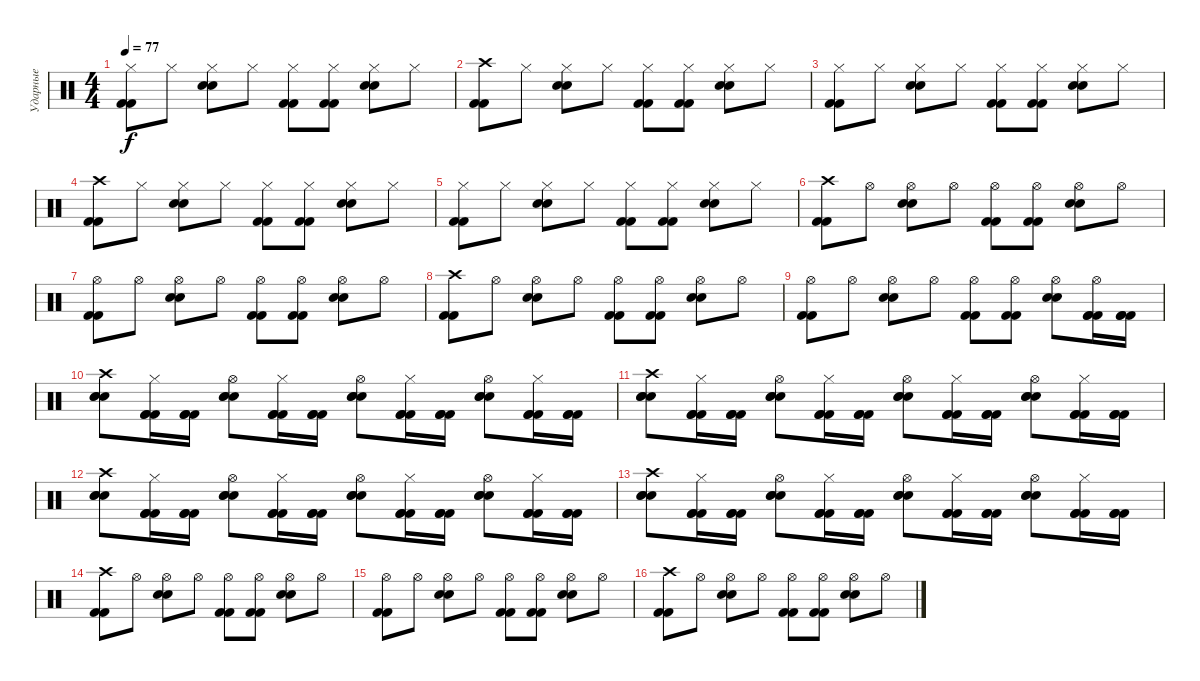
\track ("Ударные" "Ударные") {instrument percussion}
\staff {score}
\articulation defaults
\ts (4 4)
\tempo 77
\clef neutral
\ks c
("Hi-Hat (closed)" "Kick (hit) 2" "Kick (hit) 2").8{dy f} "Hi-Hat (closed)".8 ("Hi-Hat (closed)" "Snare (hit) 2" "Snare (hit) 2").8 "Hi-Hat (closed)".8 ("Hi-Hat (closed)" "Kick (hit) 2" "Kick (hit) 2").8 ("Hi-Hat (closed)" "Kick (hit) 2" "Kick (hit) 2").8 ("Hi-Hat (closed)" "Snare (hit) 2" "Snare (hit) 2").8 "Hi-Hat (closed)".8 |
("Crash high (hit)" "Kick (hit) 2" "Kick (hit) 2").8 "Hi-Hat (closed)".8 ("Hi-Hat (closed)" "Snare (hit) 2" "Snare (hit) 2").8 "Hi-Hat (closed)".8 ("Hi-Hat (closed)" "Kick (hit) 2" "Kick (hit) 2").8 ("Hi-Hat (closed)" "Kick (hit) 2" "Kick (hit) 2").8 ("Hi-Hat (closed)" "Snare (hit) 2" "Snare (hit) 2").8 "Hi-Hat (closed)".8 |
("Hi-Hat (closed)" "Kick (hit) 2" "Kick (hit) 2").8 "Hi-Hat (closed)".8 ("Hi-Hat (closed)" "Snare (hit) 2" "Snare (hit) 2").8 "Hi-Hat (closed)".8 ("Hi-Hat (closed)" "Kick (hit) 2" "Kick (hit) 2").8 ("Hi-Hat (closed)" "Kick (hit) 2" "Kick (hit) 2").8 ("Hi-Hat (closed)" "Snare (hit) 2" "Snare (hit) 2").8 "Hi-Hat (closed)".8 |
("Crash high (hit)" "Kick (hit) 2" "Kick (hit) 2").8 "Hi-Hat (closed)".8 ("Hi-Hat (closed)" "Snare (hit) 2" "Snare (hit) 2").8 "Hi-Hat (closed)".8 ("Hi-Hat (closed)" "Kick (hit) 2" "Kick (hit) 2").8 ("Hi-Hat (closed)" "Kick (hit) 2" "Kick (hit) 2").8 ("Hi-Hat (closed)" "Snare (hit) 2" "Snare (hit) 2").8 "Hi-Hat (closed)".8 |
("Hi-Hat (closed)" "Kick (hit) 2" "Kick (hit) 2").8 "Hi-Hat (closed)".8 ("Hi-Hat (closed)" "Snare (hit) 2" "Snare (hit) 2").8 "Hi-Hat (closed)".8 ("Hi-Hat (closed)" "Kick (hit) 2" "Kick (hit) 2").8 ("Hi-Hat (closed)" "Kick (hit) 2" "Kick (hit) 2").8 ("Hi-Hat (closed)" "Snare (hit) 2" "Snare (hit) 2").8 "Hi-Hat (closed)".8 |
("Crash high (hit)" "Kick (hit) 2" "Kick (hit) 2").8 "Hi-Hat (open)".8 ("Hi-Hat (open)" "Snare (hit) 2" "Snare (hit) 2").8 "Hi-Hat (open)".8 ("Hi-Hat (open)" "Kick (hit) 2" "Kick (hit) 2").8 ("Hi-Hat (open)" "Kick (hit) 2" "Kick (hit) 2").8 ("Hi-Hat (open)" "Snare (hit) 2" "Snare (hit) 2").8 "Hi-Hat (open)".8 |
("Hi-Hat (open)" "Kick (hit) 2" "Kick (hit) 2").8 "Hi-Hat (open)".8 ("Hi-Hat (open)" "Snare (hit) 2" "Snare (hit) 2").8 "Hi-Hat (open)".8 ("Hi-Hat (open)" "Kick (hit) 2" "Kick (hit) 2").8 ("Hi-Hat (open)" "Kick (hit) 2" "Kick (hit) 2").8 ("Hi-Hat (open)" "Snare (hit) 2" "Snare (hit) 2").8 "Hi-Hat (open)".8 |
("Crash high (hit)" "Kick (hit) 2" "Kick (hit) 2").8 "Hi-Hat (open)".8 ("Hi-Hat (open)" "Snare (hit) 2" "Snare (hit) 2").8 "Hi-Hat (open)".8 ("Hi-Hat (open)" "Kick (hit) 2" "Kick (hit) 2").8 ("Hi-Hat (open)" "Kick (hit) 2" "Kick (hit) 2").8 ("Hi-Hat (open)" "Snare (hit) 2" "Snare (hit) 2").8 "Hi-Hat (open)".8 |
("Hi-Hat (open)" "Kick (hit) 2" "Kick (hit) 2").8 "Hi-Hat (open)".8 ("Hi-Hat (open)" "Snare (hit) 2" "Snare (hit) 2").8 "Hi-Hat (open)".8 ("Hi-Hat (open)" "Kick (hit) 2" "Kick (hit) 2").8 ("Hi-Hat (open)" "Kick (hit) 2" "Kick (hit) 2").8 ("Hi-Hat (open)" "Snare (hit) 2" "Snare (hit) 2").8 ("Hi-Hat (open)" "Kick (hit) 2" "Kick (hit) 2" "Kick (hit) 2").16 ("Kick (hit) 2" "Kick (hit) 2" "Kick (hit) 2").16 |
("Crash high (hit)" "Snare (hit) 2" "Snare (hit) 2" "Snare (hit) 2").8 ("Hi-Hat (closed)" "Kick (hit) 2" "Kick (hit) 2" "Kick (hit) 2").16 ("Kick (hit) 2" "Kick (hit) 2" "Kick (hit) 2").16 ("Hi-Hat (open)" "Snare (hit) 2" "Snare (hit) 2" "Snare (hit) 2").8 ("Hi-Hat (closed)" "Kick (hit) 2" "Kick (hit) 2" "Kick (hit) 2").16 ("Kick (hit) 2" "Kick (hit) 2" "Kick (hit) 2").16 ("Hi-Hat (open)" "Snare (hit) 2" "Snare (hit) 2" "Snare (hit) 2").8 ("Hi-Hat (closed)" "Kick (hit) 2" "Kick (hit) 2" "Kick (hit) 2").16 ("Kick (hit) 2" "Kick (hit) 2" "Kick (hit) 2").16 ("Hi-Hat (open)" "Snare (hit) 2" "Snare (hit) 2" "Snare (hit) 2").8 ("Hi-Hat (closed)" "Kick (hit) 2" "Kick (hit) 2" "Kick (hit) 2").16 ("Kick (hit) 2" "Kick (hit) 2" "Kick (hit) 2").16 |
("Crash high (hit)" "Snare (hit) 2" "Snare (hit) 2" "Snare (hit) 2").8 ("Hi-Hat (closed)" "Kick (hit) 2" "Kick (hit) 2" "Kick (hit) 2").16 ("Kick (hit) 2" "Kick (hit) 2" "Kick (hit) 2").16 ("Hi-Hat (open)" "Snare (hit) 2" "Snare (hit) 2" "Snare (hit) 2").8 ("Hi-Hat (closed)" "Kick (hit) 2" "Kick (hit) 2" "Kick (hit) 2").16 ("Kick (hit) 2" "Kick (hit) 2" "Kick (hit) 2").16 ("Hi-Hat (open)" "Snare (hit) 2" "Snare (hit) 2" "Snare (hit) 2").8 ("Hi-Hat (closed)" "Kick (hit) 2" "Kick (hit) 2" "Kick (hit) 2").16 ("Kick (hit) 2" "Kick (hit) 2" "Kick (hit) 2").16 ("Hi-Hat (open)" "Snare (hit) 2" "Snare (hit) 2" "Snare (hit) 2").8 ("Hi-Hat (closed)" "Kick (hit) 2" "Kick (hit) 2" "Kick (hit) 2").16 ("Kick (hit) 2" "Kick (hit) 2" "Kick (hit) 2").16 |
("Crash high (hit)" "Snare (hit) 2" "Snare (hit) 2" "Snare (hit) 2").8 ("Hi-Hat (closed)" "Kick (hit) 2" "Kick (hit) 2" "Kick (hit) 2").16 ("Kick (hit) 2" "Kick (hit) 2" "Kick (hit) 2").16 ("Hi-Hat (open)" "Snare (hit) 2" "Snare (hit) 2" "Snare (hit) 2").8 ("Hi-Hat (closed)" "Kick (hit) 2" "Kick (hit) 2" "Kick (hit) 2").16 ("Kick (hit) 2" "Kick (hit) 2" "Kick (hit) 2").16 ("Hi-Hat (open)" "Snare (hit) 2" "Snare (hit) 2" "Snare (hit) 2").8 ("Hi-Hat (closed)" "Kick (hit) 2" "Kick (hit) 2" "Kick (hit) 2").16 ("Kick (hit) 2" "Kick (hit) 2" "Kick (hit) 2").16 ("Hi-Hat (open)" "Snare (hit) 2" "Snare (hit) 2" "Snare (hit) 2").8 ("Hi-Hat (closed)" "Kick (hit) 2" "Kick (hit) 2" "Kick (hit) 2").16 ("Kick (hit) 2" "Kick (hit) 2" "Kick (hit) 2").16 |
("Crash high (hit)" "Snare (hit) 2" "Snare (hit) 2" "Snare (hit) 2").8 ("Hi-Hat (closed)" "Kick (hit) 2" "Kick (hit) 2" "Kick (hit) 2").16 ("Kick (hit) 2" "Kick (hit) 2" "Kick (hit) 2").16 ("Hi-Hat (open)" "Snare (hit) 2" "Snare (hit) 2" "Snare (hit) 2").8 ("Hi-Hat (closed)" "Kick (hit) 2" "Kick (hit) 2" "Kick (hit) 2").16 ("Kick (hit) 2" "Kick (hit) 2" "Kick (hit) 2").16 ("Hi-Hat (open)" "Snare (hit) 2" "Snare (hit) 2" "Snare (hit) 2").8 ("Hi-Hat (closed)" "Kick (hit) 2" "Kick (hit) 2" "Kick (hit) 2").16 ("Kick (hit) 2" "Kick (hit) 2" "Kick (hit) 2").16 ("Hi-Hat (open)" "Snare (hit) 2" "Snare (hit) 2" "Snare (hit) 2").8 ("Hi-Hat (closed)" "Kick (hit) 2" "Kick (hit) 2" "Kick (hit) 2").16 ("Kick (hit) 2" "Kick (hit) 2" "Kick (hit) 2").16 |
("Crash high (hit)" "Kick (hit) 2" "Kick (hit) 2").8 "Hi-Hat (open)".8 ("Hi-Hat (open)" "Snare (hit) 2" "Snare (hit) 2").8 "Hi-Hat (open)".8 ("Hi-Hat (open)" "Kick (hit) 2" "Kick (hit) 2").8 ("Hi-Hat (open)" "Kick (hit) 2" "Kick (hit) 2").8 ("Hi-Hat (open)" "Snare (hit) 2" "Snare (hit) 2").8 "Hi-Hat (open)".8 |
("Hi-Hat (open)" "Kick (hit) 2" "Kick (hit) 2").8 "Hi-Hat (open)".8 ("Hi-Hat (open)" "Snare (hit) 2" "Snare (hit) 2").8 "Hi-Hat (open)".8 ("Hi-Hat (open)" "Kick (hit) 2" "Kick (hit) 2").8 ("Hi-Hat (open)" "Kick (hit) 2" "Kick (hit) 2").8 ("Hi-Hat (open)" "Snare (hit) 2" "Snare (hit) 2").8 "Hi-Hat (open)".8 |
("Crash high (hit)" "Kick (hit) 2" "Kick (hit) 2").8 "Hi-Hat (open)".8 ("Hi-Hat (open)" "Snare (hit) 2" "Snare (hit) 2").8 "Hi-Hat (open)".8 ("Hi-Hat (open)" "Kick (hit) 2" "Kick (hit) 2").8 ("Hi-Hat (open)" "Kick (hit) 2" "Kick (hit) 2").8 ("Hi-Hat (open)" "Snare (hit) 2" "Snare (hit) 2").8 "Hi-Hat (open)".8
